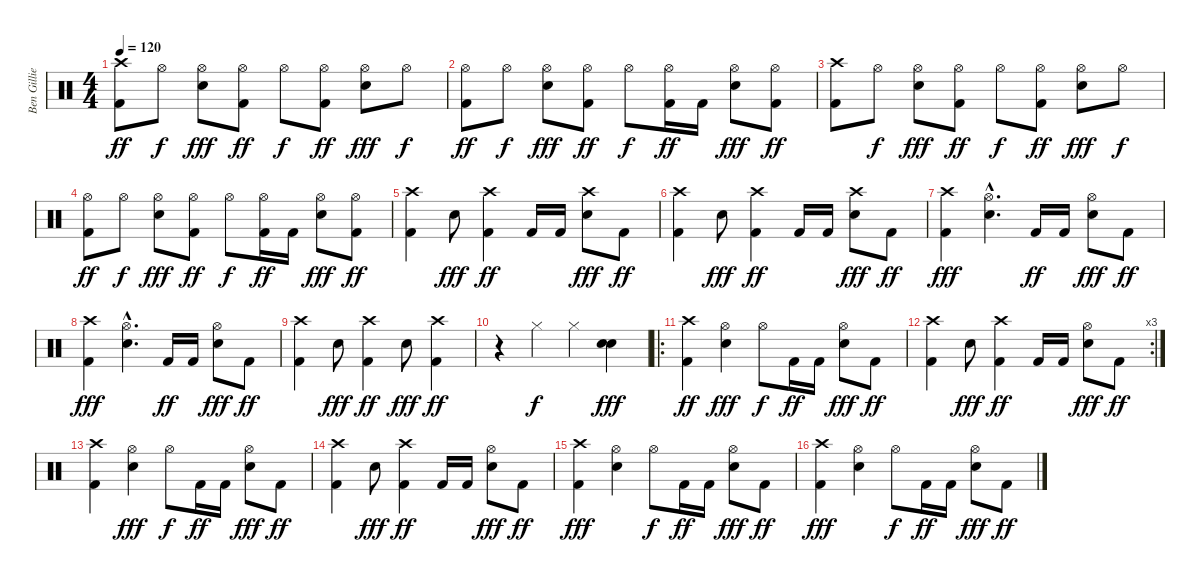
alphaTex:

\track ("Ben Gillies" "Ben Gillie") {instrument percussion}
\staff {score}
\articulation defaults
\ts (4 4)
\tempo 120
\clef neutral
\ks c
("Crash high (hit)" "Kick (hit) 2").8{dy ff} "Hi-Hat (open)".8{dy f} ("Hi-Hat (open)" "Electric Snare (hit)").8{dy fff} ("Hi-Hat (open)" "Kick (hit) 2").8{dy ff} "Hi-Hat (open)".8{dy f} ("Hi-Hat (open)" "Kick (hit) 2").8{dy ff} ("Hi-Hat (open)" "Electric Snare (hit)").8{dy fff} "Hi-Hat (open)".8{dy f} |
("Hi-Hat (open)" "Kick (hit) 2").8{dy ff} "Hi-Hat (open)".8{dy f} ("Hi-Hat (open)" "Electric Snare (hit)").8{dy fff} ("Hi-Hat (open)" "Kick (hit) 2").8{dy ff} "Hi-Hat (open)".8{dy f} ("Hi-Hat (open)" "Kick (hit) 2").16{dy ff} "Kick (hit) 2".16 ("Hi-Hat (open)" "Electric Snare (hit)").8{dy fff} ("Hi-Hat (open)" "Kick (hit) 2").8{dy ff} |
("Crash high (hit)" "Kick (hit) 2").8 "Hi-Hat (open)".8{dy f} ("Hi-Hat (open)" "Electric Snare (hit)").8{dy fff} ("Hi-Hat (open)" "Kick (hit) 2").8{dy ff} "Hi-Hat (open)".8{dy f} ("Hi-Hat (open)" "Kick (hit) 2").8{dy ff} ("Hi-Hat (open)" "Electric Snare (hit)").8{dy fff} "Hi-Hat (open)".8{dy f} |
("Hi-Hat (open)" "Kick (hit) 2").8{dy ff} "Hi-Hat (open)".8{dy f} ("Hi-Hat (open)" "Electric Snare (hit)").8{dy fff} ("Hi-Hat (open)" "Kick (hit) 2").8{dy ff} "Hi-Hat (open)".8{dy f} ("Hi-Hat (open)" "Kick (hit) 2").16{dy ff} "Kick (hit) 2".16 ("Hi-Hat (open)" "Electric Snare (hit)").8{dy fff} ("Hi-Hat (open)" "Kick (hit) 2").8{dy ff} |
("Crash high (hit)" "Kick (hit) 2").4 "Electric Snare (hit)".8{dy fff} ("Crash high (hit)" "Kick (hit) 2").4{dy ff} "Kick (hit) 2".16 "Kick (hit) 2".16 ("Crash high (hit)" "Electric Snare (hit)").8{dy fff} "Kick (hit) 2".8{dy ff} |
("Crash high (hit)" "Kick (hit) 2").4 "Electric Snare (hit)".8{dy fff} ("Crash high (hit)" "Kick (hit) 2").4{dy ff} "Kick (hit) 2".16 "Kick (hit) 2".16 ("Crash high (hit)" "Electric Snare (hit)").8{dy fff} "Kick (hit) 2".8{dy ff} |
("Crash high (hit)" "Kick (hit) 2").4{dy fff} ("Hi-Hat (open)"{hac} "Electric Snare (hit)"{hac}).4{d} "Kick (hit) 2".16{dy ff} "Kick (hit) 2".16 ("Hi-Hat (open)" "Electric Snare (hit)").8{dy fff} "Kick (hit) 2".8{dy ff} |
("Crash high (hit)" "Kick (hit) 2").4{dy fff} ("Hi-Hat (open)"{hac} "Electric Snare (hit)"{hac}).4{d} "Kick (hit) 2".16{dy ff} "Kick (hit) 2".16 ("Hi-Hat (open)" "Electric Snare (hit)").8{dy fff} "Kick (hit) 2".8{dy ff} |
("Crash high (hit)" "Kick (hit) 2").4 "Electric Snare (hit)".8{dy fff} ("Crash high (hit)" "Kick (hit) 2").4{dy ff} "Electric Snare (hit)".8{dy fff} ("Crash high (hit)" "Kick (hit) 2").4{dy ff} |
r.4 "Hi-Hat (closed)".4{dy f} "Hi-Hat (closed)".4 ("Electric Snare (hit)" "Electric Snare (hit)").4{dy fff} |
\ro
("Crash high (hit)" "Kick (hit) 2").4{dy ff} ("Hi-Hat (open)" "Electric Snare (hit)").4{dy fff} "Hi-Hat (open)".8{dy f} "Kick (hit) 2".16{dy ff} "Kick (hit) 2".16 ("Hi-Hat (open)" "Electric Snare (hit)").8{dy fff} "Kick (hit) 2".8{dy ff} |
\rc 3
("Crash high (hit)" "Kick (hit) 2").4 "Electric Snare (hit)".8{dy fff} ("Crash high (hit)" "Kick (hit) 2").4{dy ff} "Kick (hit) 2".16 "Kick (hit) 2".16 ("Hi-Hat (open)" "Electric Snare (hit)").8{dy fff} "Kick (hit) 2".8{dy ff} |
("Crash high (hit)" "Kick (hit) 2").4 ("Hi-Hat (open)" "Electric Snare (hit)").4{dy fff} "Hi-Hat (open)".8{dy f} "Kick (hit) 2".16{dy ff} "Kick (hit) 2".16 ("Hi-Hat (open)" "Electric Snare (hit)").8{dy fff} "Kick (hit) 2".8{dy ff} |
("Crash high (hit)" "Kick (hit) 2").4 "Electric Snare (hit)".8{dy fff} ("Crash high (hit)" "Kick (hit) 2").4{dy ff} "Kick (hit) 2".16 "Kick (hit) 2".16 ("Hi-Hat (open)" "Electric Snare (hit)").8{dy fff} "Kick (hit) 2".8{dy ff} |
("Crash high (hit)" "Kick (hit) 2").4{dy fff} ("Hi-Hat (open)" "Electric Snare (hit)").4 "Hi-Hat (open)".8{dy f} "Kick (hit) 2".16{dy ff} "Kick (hit) 2".16 ("Hi-Hat (open)" "Electric Snare (hit)").8{dy fff} "Kick (hit) 2".8{dy ff} |
("Crash high (hit)" "Kick (hit) 2").4{dy fff} ("Hi-Hat (open)" "Electric Snare (hit)").4 "Hi-Hat (open)".8{dy f} "Kick (hit) 2".16{dy ff} "Kick (hit) 2".16 ("Hi-Hat (open)" "Electric Snare (hit)").8{dy fff} "Kick (hit) 2".8{dy ff}
